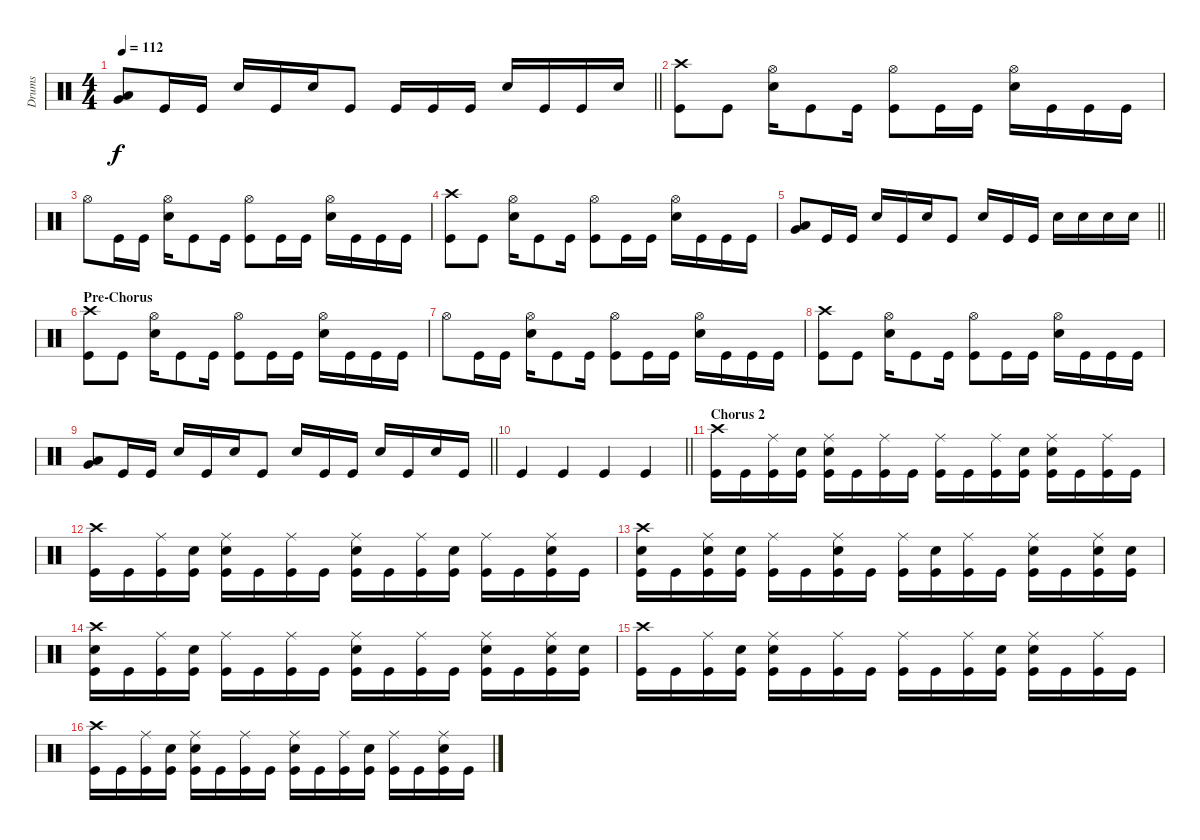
\track ("Drums" "Drums") {instrument percussion}
\staff {score}
\articulation defaults
\ts (4 4)
\tempo 112
\clef neutral
\barLineRight lightlight
\ks c
("Low Tom (hit)" "Very Low Tom (hit)").8{dy f} "Kick (hit)".16 "Kick (hit)".16 "Snare (hit) 2".16 "Kick (hit)".16 "Snare (hit) 2".16 "Kick (hit)".8 "Kick (hit)".16 "Kick (hit)".16 "Kick (hit)".16 "Snare (hit) 2".16 "Kick (hit)".16 "Kick (hit)".16 "Snare (hit) 2".16 |
("Kick (hit)" "Crash high (hit)").8 "Kick (hit)".8 ("Hi-Hat (open)" "Snare (hit) 2").16 "Kick (hit)".8 "Kick (hit)".16 ("Hi-Hat (open)" "Kick (hit)").8 "Kick (hit)".16 "Kick (hit)".16 ("Hi-Hat (open)" "Snare (hit) 2").16 "Kick (hit)".16 "Kick (hit)".16 "Kick (hit)".16 |
"Hi-Hat (open)".8 "Kick (hit)".16 "Kick (hit)".16 ("Snare (hit) 2" "Hi-Hat (open)").16 "Kick (hit)".8 "Kick (hit)".16 ("Kick (hit)" "Hi-Hat (open)").8 "Kick (hit)".16 "Kick (hit)".16 ("Snare (hit) 2" "Hi-Hat (open)").16 "Kick (hit)".16 "Kick (hit)".16 "Kick (hit)".16 |
("Kick (hit)" "Crash high (hit)").8 "Kick (hit)".8 ("Hi-Hat (open)" "Snare (hit) 2").16 "Kick (hit)".8 "Kick (hit)".16 ("Hi-Hat (open)" "Kick (hit)").8 "Kick (hit)".16 "Kick (hit)".16 ("Hi-Hat (open)" "Snare (hit) 2").16 "Kick (hit)".16 "Kick (hit)".16 "Kick (hit)".16 |
\barLineRight lightlight
("Low Tom (hit)" "Very Low Tom (hit)").8 "Kick (hit)".16 "Kick (hit)".16 "Snare (hit) 2".16 "Kick (hit)".16 "Snare (hit) 2".16 "Kick (hit)".8 "Snare (hit) 2".16 "Kick (hit)".16 "Kick (hit)".16 "Snare (hit) 2".16 "Snare (hit) 2".16 "Snare (hit) 2".16 "Snare (hit) 2".16 |
\section ("" "Pre-Chorus")
("Kick (hit)" "Crash high (hit)").8 "Kick (hit)".8 ("Hi-Hat (open)" "Snare (hit) 2").16 "Kick (hit)".8 "Kick (hit)".16 ("Hi-Hat (open)" "Kick (hit)").8 "Kick (hit)".16 "Kick (hit)".16 ("Hi-Hat (open)" "Snare (hit) 2").16 "Kick (hit)".16 "Kick (hit)".16 "Kick (hit)".16 |
"Hi-Hat (open)".8 "Kick (hit)".16 "Kick (hit)".16 ("Snare (hit) 2" "Hi-Hat (open)").16 "Kick (hit)".8 "Kick (hit)".16 ("Kick (hit)" "Hi-Hat (open)").8 "Kick (hit)".16 "Kick (hit)".16 ("Snare (hit) 2" "Hi-Hat (open)").16 "Kick (hit)".16 "Kick (hit)".16 "Kick (hit)".16 |
("Kick (hit)" "Crash high (hit)").8 "Kick (hit)".8 ("Hi-Hat (open)" "Snare (hit) 2").16 "Kick (hit)".8 "Kick (hit)".16 ("Hi-Hat (open)" "Kick (hit)").8 "Kick (hit)".16 "Kick (hit)".16 ("Hi-Hat (open)" "Snare (hit) 2").16 "Kick (hit)".16 "Kick (hit)".16 "Kick (hit)".16 |
\barLineRight lightlight
("Low Tom (hit)" "Very Low Tom (hit)").8 "Kick (hit)".16 "Kick (hit)".16 "Snare (hit) 2".16 "Kick (hit)".16 "Snare (hit) 2".16 "Kick (hit)".8 "Snare (hit) 2".16 "Kick (hit)".16 "Kick (hit)".16 "Snare (hit) 2".16 "Kick (hit)".16 "Snare (hit) 2".16 "Kick (hit)".16 |
\barLineRight lightlight "Kick (hit)".4 "Kick (hit)".4 "Kick (hit)".4 "Kick (hit)".4
|
\section ("" "Chorus 2")
("Crash high (hit)" "Kick (hit)").16 "Kick (hit)".16 ("Ride (middle)" "Kick (hit)").16 ("Snare (hit) 2" "Kick (hit)").16 ("Ride (middle)" "Snare (hit) 2" "Kick (hit)").16 "Kick (hit)".16 ("Ride (middle)" "Kick (hit)").16 "Kick (hit)".16 ("Ride (middle)" "Kick (hit)").16 "Kick (hit)".16 ("Ride (middle)" "Kick (hit)").16 ("Snare (hit) 2" "Kick (hit)").16 ("Ride (middle)" "Snare (hit) 2" "Kick (hit)").16 "Kick (hit)".16 ("Ride (middle)" "Kick (hit)").16 "Kick (hit)".16 |
("Crash high (hit)" "Kick (hit)").16 "Kick (hit)".16 ("Ride (middle)" "Kick (hit)").16 ("Snare (hit) 2" "Kick (hit)").16 ("Ride (middle)" "Snare (hit) 2" "Kick (hit)").16 "Kick (hit)".16 ("Ride (middle)" "Kick (hit)").16 "Kick (hit)".16 ("Ride (middle)" "Snare (hit) 2" "Kick (hit)").16 "Kick (hit)".16 ("Ride (middle)" "Kick (hit)").16 ("Snare (hit) 2" "Kick (hit)").16 ("Ride (middle)" "Kick (hit)").16 "Kick (hit)".16 ("Ride (middle)" "Snare (hit) 2" "Kick (hit)").16 "Kick (hit)".16 |
("Crash high (hit)" "Snare (hit) 2" "Kick (hit)").16 "Kick (hit)".16 ("Ride (middle)" "Snare (hit) 2" "Kick (hit)").16 ("Snare (hit) 2" "Kick (hit)").16 ("Ride (middle)" "Kick (hit)").16 "Kick (hit)".16 ("Ride (middle)" "Snare (hit) 2" "Kick (hit)").16 "Kick (hit)".16 ("Ride (middle)" "Kick (hit)").16 ("Snare (hit) 2" "Kick (hit)").16 ("Ride (middle)" "Kick (hit)").16 "Kick (hit)".16 ("Ride (middle)" "Snare (hit) 2" "Kick (hit)").16 "Kick (hit)".16 ("Ride (middle)" "Snare (hit) 2" "Kick (hit)").16 ("Snare (hit) 2" "Kick (hit)").16 |
("Crash high (hit)" "Snare (hit) 2" "Kick (hit)").16 "Kick (hit)".16 ("Ride (middle)" "Kick (hit)").16 ("Snare (hit) 2" "Kick (hit)").16 ("Ride (middle)" "Kick (hit)").16 "Kick (hit)".16 ("Ride (middle)" "Kick (hit)").16 "Kick (hit)".16 ("Ride (middle)" "Snare (hit) 2" "Kick (hit)").16 "Kick (hit)".16 ("Ride (middle)" "Kick (hit)").16 "Kick (hit)".16 ("Ride (middle)" "Snare (hit) 2" "Kick (hit)").16 "Kick (hit)".16 ("Ride (middle)" "Snare (hit) 2" "Kick (hit)").16 ("Snare (hit) 2" "Kick (hit)").16 |
("Crash high (hit)" "Kick (hit)").16 "Kick (hit)".16 ("Ride (middle)" "Kick (hit)").16 ("Snare (hit) 2" "Kick (hit)").16 ("Ride (middle)" "Snare (hit) 2" "Kick (hit)").16 "Kick (hit)".16 ("Ride (middle)" "Kick (hit)").16 "Kick (hit)".16 ("Ride (middle)" "Kick (hit)").16 "Kick (hit)".16 ("Ride (middle)" "Kick (hit)").16 ("Snare (hit) 2" "Kick (hit)").16 ("Ride (middle)" "Snare (hit) 2" "Kick (hit)").16 "Kick (hit)".16 ("Ride (middle)" "Kick (hit)").16 "Kick (hit)".16 |
("Crash high (hit)" "Kick (hit)").16 "Kick (hit)".16 ("Ride (middle)" "Kick (hit)").16 ("Snare (hit) 2" "Kick (hit)").16 ("Ride (middle)" "Snare (hit) 2" "Kick (hit)").16 "Kick (hit)".16 ("Ride (middle)" "Kick (hit)").16 "Kick (hit)".16 ("Ride (middle)" "Snare (hit) 2" "Kick (hit)").16 "Kick (hit)".16 ("Ride (middle)" "Kick (hit)").16 ("Snare (hit) 2" "Kick (hit)").16 ("Ride (middle)" "Kick (hit)").16 "Kick (hit)".16 ("Ride (middle)" "Snare (hit) 2" "Kick (hit)").16 "Kick (hit)".16
